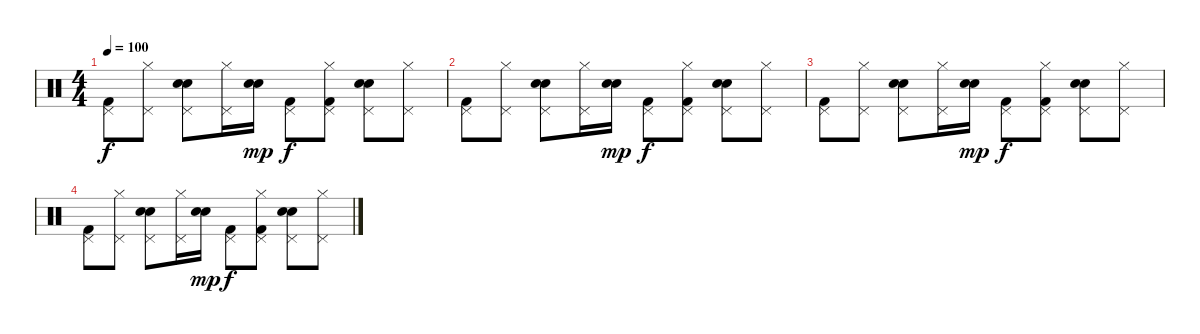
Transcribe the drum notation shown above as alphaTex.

\track "" {instrument percussion}
\staff {score}
\articulation defaults
\ts (4 4)
\tempo 100
\clef neutral
\ks c
("Pedal Hi-Hat (hit)" "Kick (hit) 2").8{dy f} ("Hi-Hat (closed)" "Pedal Hi-Hat (hit)").8 ("Snare (hit) 2" "Electric Snare (hit)" "Pedal Hi-Hat (hit)").8 ("Hi-Hat (closed)" "Pedal Hi-Hat (hit)").16 ("Electric Snare (hit)" "Snare (hit) 2").16{dy mp} ("Pedal Hi-Hat (hit)" "Kick (hit) 2").8{dy f} ("Hi-Hat (closed)" "Pedal Hi-Hat (hit)" "Kick (hit) 2").8 ("Snare (hit) 2" "Electric Snare (hit)" "Pedal Hi-Hat (hit)").8 ("Hi-Hat (closed)" "Pedal Hi-Hat (hit)").8 |
("Pedal Hi-Hat (hit)" "Kick (hit) 2").8 ("Hi-Hat (closed)" "Pedal Hi-Hat (hit)").8 ("Snare (hit) 2" "Electric Snare (hit)" "Pedal Hi-Hat (hit)").8 ("Hi-Hat (closed)" "Pedal Hi-Hat (hit)").16 ("Electric Snare (hit)" "Snare (hit) 2").16{dy mp} ("Pedal Hi-Hat (hit)" "Kick (hit) 2").8{dy f} ("Hi-Hat (closed)" "Pedal Hi-Hat (hit)" "Kick (hit) 2").8 ("Snare (hit) 2" "Electric Snare (hit)" "Pedal Hi-Hat (hit)").8 ("Hi-Hat (closed)" "Pedal Hi-Hat (hit)").8 |
("Pedal Hi-Hat (hit)" "Kick (hit) 2").8 ("Hi-Hat (closed)" "Pedal Hi-Hat (hit)").8 ("Snare (hit) 2" "Electric Snare (hit)" "Pedal Hi-Hat (hit)").8 ("Hi-Hat (closed)" "Pedal Hi-Hat (hit)").16 ("Electric Snare (hit)" "Snare (hit) 2").16{dy mp} ("Pedal Hi-Hat (hit)" "Kick (hit) 2").8{dy f} ("Hi-Hat (closed)" "Pedal Hi-Hat (hit)" "Kick (hit) 2").8 ("Snare (hit) 2" "Electric Snare (hit)" "Pedal Hi-Hat (hit)").8 ("Hi-Hat (closed)" "Pedal Hi-Hat (hit)").8 |
("Pedal Hi-Hat (hit)" "Kick (hit) 2").8 ("Hi-Hat (closed)" "Pedal Hi-Hat (hit)").8 ("Snare (hit) 2" "Electric Snare (hit)" "Pedal Hi-Hat (hit)").8 ("Hi-Hat (closed)" "Pedal Hi-Hat (hit)").16 ("Electric Snare (hit)" "Snare (hit) 2").16{dy mp} ("Pedal Hi-Hat (hit)" "Kick (hit) 2").8{dy f} ("Hi-Hat (closed)" "Pedal Hi-Hat (hit)" "Kick (hit) 2").8 ("Snare (hit) 2" "Electric Snare (hit)" "Pedal Hi-Hat (hit)").8 ("Hi-Hat (closed)" "Pedal Hi-Hat (hit)").8
